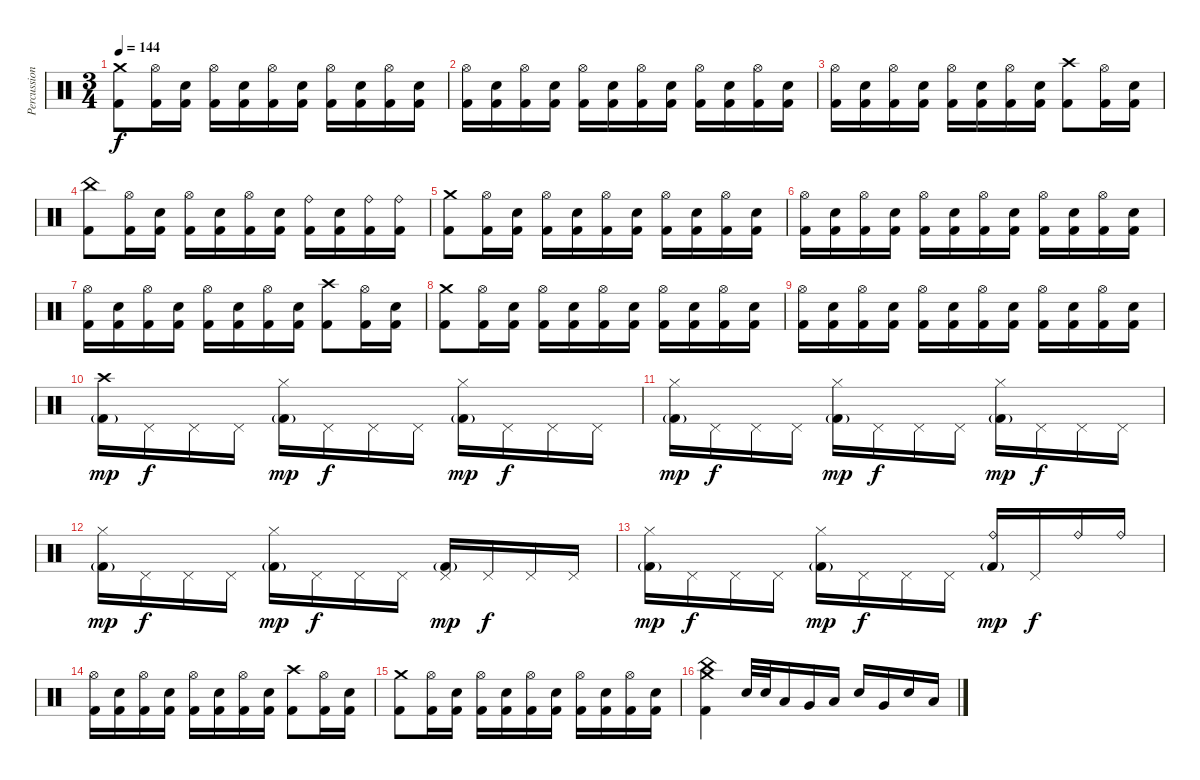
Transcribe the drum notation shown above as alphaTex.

\track ("Percussion" "Percussion") {instrument percussion}
\staff {score}
\articulation defaults
\ts (3 4)
\tempo 144
\clef neutral
\ks c
("Crash medium (hit)" "Kick (hit) 2").8{dy f} ("Hi-Hat (open)" "Kick (hit) 2").16 ("Electric Snare (hit)" "Kick (hit) 2").16 ("Hi-Hat (open)" "Kick (hit) 2").16 ("Electric Snare (hit)" "Kick (hit) 2").16 ("Hi-Hat (open)" "Kick (hit) 2").16 ("Electric Snare (hit)" "Kick (hit) 2").16 ("Hi-Hat (open)" "Kick (hit) 2").16 ("Electric Snare (hit)" "Kick (hit) 2").16 ("Hi-Hat (open)" "Kick (hit) 2").16 ("Electric Snare (hit)" "Kick (hit) 2").16 |
("Hi-Hat (open)" "Kick (hit) 2").16 ("Electric Snare (hit)" "Kick (hit) 2").16 ("Hi-Hat (open)" "Kick (hit) 2").16 ("Electric Snare (hit)" "Kick (hit) 2").16 ("Hi-Hat (open)" "Kick (hit) 2").16 ("Electric Snare (hit)" "Kick (hit) 2").16 ("Hi-Hat (open)" "Kick (hit) 2").16 ("Electric Snare (hit)" "Kick (hit) 2").16 ("Hi-Hat (open)" "Kick (hit) 2").16 ("Electric Snare (hit)" "Kick (hit) 2").16 ("Hi-Hat (open)" "Kick (hit) 2").16 ("Electric Snare (hit)" "Kick (hit) 2").16 |
("Hi-Hat (open)" "Kick (hit) 2").16 ("Electric Snare (hit)" "Kick (hit) 2").16 ("Hi-Hat (open)" "Kick (hit) 2").16 ("Electric Snare (hit)" "Kick (hit) 2").16 ("Hi-Hat (open)" "Kick (hit) 2").16 ("Electric Snare (hit)" "Kick (hit) 2").16 ("Hi-Hat (open)" "Kick (hit) 2").16 ("Electric Snare (hit)" "Kick (hit) 2").16 ("Crash high (hit)" "Kick (hit) 2").8 ("Hi-Hat (open)" "Kick (hit) 2").16 ("Electric Snare (hit)" "Kick (hit) 2").16 |
("China (hit)" "Kick (hit) 2").8 ("Hi-Hat (open)" "Kick (hit) 2").16 ("Electric Snare (hit)" "Kick (hit) 2").16 ("Hi-Hat (open)" "Kick (hit) 2").16 ("Electric Snare (hit)" "Kick (hit) 2").16 ("Hi-Hat (open)" "Kick (hit) 2").16 ("Electric Snare (hit)" "Kick (hit) 2").16 ("Ride (bell)" "Kick (hit) 2").16 ("Electric Snare (hit)" "Kick (hit) 2").16 ("Ride (bell)" "Kick (hit) 2").16 ("Ride (bell)" "Kick (hit) 2").16 |
("Crash medium (hit)" "Kick (hit) 2").8 ("Hi-Hat (open)" "Kick (hit) 2").16 ("Electric Snare (hit)" "Kick (hit) 2").16 ("Hi-Hat (open)" "Kick (hit) 2").16 ("Electric Snare (hit)" "Kick (hit) 2").16 ("Hi-Hat (open)" "Kick (hit) 2").16 ("Electric Snare (hit)" "Kick (hit) 2").16 ("Hi-Hat (open)" "Kick (hit) 2").16 ("Electric Snare (hit)" "Kick (hit) 2").16 ("Hi-Hat (open)" "Kick (hit) 2").16 ("Electric Snare (hit)" "Kick (hit) 2").16 |
("Hi-Hat (open)" "Kick (hit) 2").16 ("Electric Snare (hit)" "Kick (hit) 2").16 ("Hi-Hat (open)" "Kick (hit) 2").16 ("Electric Snare (hit)" "Kick (hit) 2").16 ("Hi-Hat (open)" "Kick (hit) 2").16 ("Electric Snare (hit)" "Kick (hit) 2").16 ("Hi-Hat (open)" "Kick (hit) 2").16 ("Electric Snare (hit)" "Kick (hit) 2").16 ("Hi-Hat (open)" "Kick (hit) 2").16 ("Electric Snare (hit)" "Kick (hit) 2").16 ("Hi-Hat (open)" "Kick (hit) 2").16 ("Electric Snare (hit)" "Kick (hit) 2").16 |
("Hi-Hat (open)" "Kick (hit) 2").16 ("Electric Snare (hit)" "Kick (hit) 2").16 ("Hi-Hat (open)" "Kick (hit) 2").16 ("Electric Snare (hit)" "Kick (hit) 2").16 ("Hi-Hat (open)" "Kick (hit) 2").16 ("Electric Snare (hit)" "Kick (hit) 2").16 ("Hi-Hat (open)" "Kick (hit) 2").16 ("Electric Snare (hit)" "Kick (hit) 2").16 ("Crash high (hit)" "Kick (hit) 2").8 ("Hi-Hat (open)" "Kick (hit) 2").16 ("Electric Snare (hit)" "Kick (hit) 2").16 |
("Crash medium (hit)" "Kick (hit) 2").8 ("Hi-Hat (open)" "Kick (hit) 2").16 ("Electric Snare (hit)" "Kick (hit) 2").16 ("Hi-Hat (open)" "Kick (hit) 2").16 ("Electric Snare (hit)" "Kick (hit) 2").16 ("Hi-Hat (open)" "Kick (hit) 2").16 ("Electric Snare (hit)" "Kick (hit) 2").16 ("Hi-Hat (open)" "Kick (hit) 2").16 ("Electric Snare (hit)" "Kick (hit) 2").16 ("Hi-Hat (open)" "Kick (hit) 2").16 ("Electric Snare (hit)" "Kick (hit) 2").16 |
("Hi-Hat (open)" "Kick (hit) 2").16 ("Electric Snare (hit)" "Kick (hit) 2").16 ("Hi-Hat (open)" "Kick (hit) 2").16 ("Electric Snare (hit)" "Kick (hit) 2").16 ("Hi-Hat (open)" "Kick (hit) 2").16 ("Electric Snare (hit)" "Kick (hit) 2").16 ("Hi-Hat (open)" "Kick (hit) 2").16 ("Electric Snare (hit)" "Kick (hit) 2").16 ("Hi-Hat (open)" "Kick (hit) 2").16 ("Electric Snare (hit)" "Kick (hit) 2").16 ("Hi-Hat (open)" "Kick (hit) 2").16 ("Electric Snare (hit)" "Kick (hit) 2").16 |
("Crash high (hit)" "Kick (hit) 2"{g}).16{dy mp} "Pedal Hi-Hat (hit)".16{dy f} "Pedal Hi-Hat (hit)".16 "Pedal Hi-Hat (hit)".16 ("Hi-Hat (closed)" "Kick (hit) 2"{g}).16{dy mp} "Pedal Hi-Hat (hit)".16{dy f} "Pedal Hi-Hat (hit)".16 "Pedal Hi-Hat (hit)".16 ("Hi-Hat (closed)" "Kick (hit) 2"{g}).16{dy mp} "Pedal Hi-Hat (hit)".16{dy f} "Pedal Hi-Hat (hit)".16 "Pedal Hi-Hat (hit)".16 |
("Hi-Hat (closed)" "Kick (hit) 2"{g}).16{dy mp} "Pedal Hi-Hat (hit)".16{dy f} "Pedal Hi-Hat (hit)".16 "Pedal Hi-Hat (hit)".16 ("Hi-Hat (closed)" "Kick (hit) 2"{g}).16{dy mp} "Pedal Hi-Hat (hit)".16{dy f} "Pedal Hi-Hat (hit)".16 "Pedal Hi-Hat (hit)".16 ("Hi-Hat (closed)" "Kick (hit) 2"{g}).16{dy mp} "Pedal Hi-Hat (hit)".16{dy f} "Pedal Hi-Hat (hit)".16 "Pedal Hi-Hat (hit)".16 |
("Hi-Hat (closed)" "Kick (hit) 2"{g}).16{dy mp} "Pedal Hi-Hat (hit)".16{dy f} "Pedal Hi-Hat (hit)".16 "Pedal Hi-Hat (hit)".16 ("Hi-Hat (closed)" "Kick (hit) 2"{g}).16{dy mp} "Pedal Hi-Hat (hit)".16{dy f} "Pedal Hi-Hat (hit)".16 "Pedal Hi-Hat (hit)".16 ("Pedal Hi-Hat (hit)" "Kick (hit) 2"{g}).16{dy mp} "Pedal Hi-Hat (hit)".16{dy f} "Pedal Hi-Hat (hit)".16 "Pedal Hi-Hat (hit)".16 |
("Hi-Hat (closed)" "Kick (hit) 2"{g}).16{dy mp} "Pedal Hi-Hat (hit)".16{dy f} "Pedal Hi-Hat (hit)".16 "Pedal Hi-Hat (hit)".16 ("Hi-Hat (closed)" "Kick (hit) 2"{g}).16{dy mp} "Pedal Hi-Hat (hit)".16{dy f} "Pedal Hi-Hat (hit)".16 "Pedal Hi-Hat (hit)".16 ("Ride (bell)" "Kick (hit) 2"{g}).16{dy mp} "Pedal Hi-Hat (hit)".16{dy f} "Ride (bell)".16 "Ride (bell)".16 |
("Hi-Hat (open)" "Kick (hit) 2").16 ("Electric Snare (hit)" "Kick (hit) 2").16 ("Hi-Hat (open)" "Kick (hit) 2").16 ("Electric Snare (hit)" "Kick (hit) 2").16 ("Hi-Hat (open)" "Kick (hit) 2").16 ("Electric Snare (hit)" "Kick (hit) 2").16 ("Hi-Hat (open)" "Kick (hit) 2").16 ("Electric Snare (hit)" "Kick (hit) 2").16 ("Crash high (hit)" "Kick (hit) 2").8 ("Hi-Hat (open)" "Kick (hit) 2").16 ("Electric Snare (hit)" "Kick (hit) 2").16 |
("Crash medium (hit)" "Kick (hit) 2").8 ("Hi-Hat (open)" "Kick (hit) 2").16 ("Electric Snare (hit)" "Kick (hit) 2").16 ("Hi-Hat (open)" "Kick (hit) 2").16 ("Electric Snare (hit)" "Kick (hit) 2").16 ("Hi-Hat (open)" "Kick (hit) 2").16 ("Electric Snare (hit)" "Kick (hit) 2").16 ("Hi-Hat (open)" "Kick (hit) 2").16 ("Electric Snare (hit)" "Kick (hit) 2").16 ("Hi-Hat (open)" "Kick (hit) 2").16 ("Electric Snare (hit)" "Kick (hit) 2").16 |
("Crash medium (hit)" "China (hit)" "Kick (hit) 2").4 "Electric Snare (hit)".32 "Electric Snare (hit)".32 "Low Tom (hit)".16 "Very Low Tom (hit)".16 "Low Tom (hit)".16 "Electric Snare (hit)".16 "Very Low Tom (hit)".16 "Electric Snare (hit)".16 "Low Tom (hit)".16
